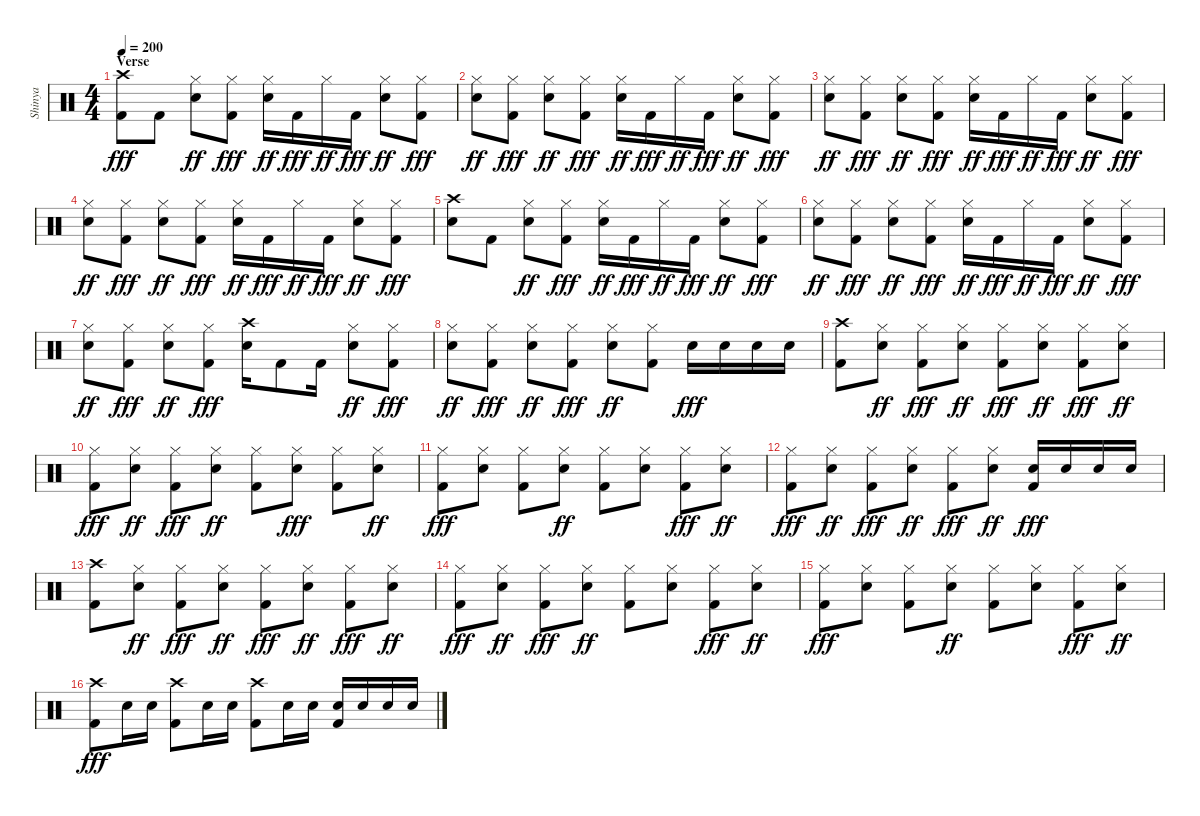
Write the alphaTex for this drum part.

\track ("Shinya" "Shinya") {instrument percussion}
\staff {score}
\articulation defaults
\ts (4 4)
\section ("" "Verse")
\tempo 200
\clef neutral
\ks c
("Kick (hit) 2" "Crash high (hit)").8{dy fff} "Kick (hit) 2".8 ("Snare (hit) 2" "Hi-Hat (closed)").8{dy ff} ("Hi-Hat (closed)" "Kick (hit) 2").8{dy fff} ("Snare (hit) 2" "Hi-Hat (closed)").16{dy ff} "Kick (hit) 2".16{dy fff} "Hi-Hat (closed)".16{dy ff} "Kick (hit) 2".16{dy fff} ("Snare (hit) 2" "Hi-Hat (closed)").8{dy ff} ("Hi-Hat (closed)" "Kick (hit) 2").8{dy fff} |
("Snare (hit) 2" "Hi-Hat (closed)").8{dy ff} ("Hi-Hat (closed)" "Kick (hit) 2").8{dy fff} ("Snare (hit) 2" "Hi-Hat (closed)").8{dy ff} ("Hi-Hat (closed)" "Kick (hit) 2").8{dy fff} ("Snare (hit) 2" "Hi-Hat (closed)").16{dy ff} "Kick (hit) 2".16{dy fff} "Hi-Hat (closed)".16{dy ff} "Kick (hit) 2".16{dy fff} ("Snare (hit) 2" "Hi-Hat (closed)").8{dy ff} ("Hi-Hat (closed)" "Kick (hit) 2").8{dy fff} |
("Snare (hit) 2" "Hi-Hat (closed)").8{dy ff} ("Hi-Hat (closed)" "Kick (hit) 2").8{dy fff} ("Snare (hit) 2" "Hi-Hat (closed)").8{dy ff} ("Hi-Hat (closed)" "Kick (hit) 2").8{dy fff} ("Snare (hit) 2" "Hi-Hat (closed)").16{dy ff} "Kick (hit) 2".16{dy fff} "Hi-Hat (closed)".16{dy ff} "Kick (hit) 2".16{dy fff} ("Snare (hit) 2" "Hi-Hat (closed)").8{dy ff} ("Hi-Hat (closed)" "Kick (hit) 2").8{dy fff} |
("Snare (hit) 2" "Hi-Hat (closed)").8{dy ff} ("Hi-Hat (closed)" "Kick (hit) 2").8{dy fff} ("Snare (hit) 2" "Hi-Hat (closed)").8{dy ff} ("Hi-Hat (closed)" "Kick (hit) 2").8{dy fff} ("Snare (hit) 2" "Hi-Hat (closed)").16{dy ff} "Kick (hit) 2".16{dy fff} "Hi-Hat (closed)".16{dy ff} "Kick (hit) 2".16{dy fff} ("Snare (hit) 2" "Hi-Hat (closed)").8{dy ff} ("Hi-Hat (closed)" "Kick (hit) 2").8{dy fff} |
("Snare (hit) 2" "Crash high (hit)").8 "Kick (hit) 2".8 ("Snare (hit) 2" "Hi-Hat (closed)").8{dy ff} ("Hi-Hat (closed)" "Kick (hit) 2").8{dy fff} ("Snare (hit) 2" "Hi-Hat (closed)").16{dy ff} "Kick (hit) 2".16{dy fff} "Hi-Hat (closed)".16{dy ff} "Kick (hit) 2".16{dy fff} ("Snare (hit) 2" "Hi-Hat (closed)").8{dy ff} ("Hi-Hat (closed)" "Kick (hit) 2").8{dy fff} |
("Snare (hit) 2" "Hi-Hat (closed)").8{dy ff} ("Hi-Hat (closed)" "Kick (hit) 2").8{dy fff} ("Snare (hit) 2" "Hi-Hat (closed)").8{dy ff} ("Hi-Hat (closed)" "Kick (hit) 2").8{dy fff} ("Snare (hit) 2" "Hi-Hat (closed)").16{dy ff} "Kick (hit) 2".16{dy fff} "Hi-Hat (closed)".16{dy ff} "Kick (hit) 2".16{dy fff} ("Snare (hit) 2" "Hi-Hat (closed)").8{dy ff} ("Hi-Hat (closed)" "Kick (hit) 2").8{dy fff} |
("Snare (hit) 2" "Hi-Hat (closed)").8{dy ff} ("Hi-Hat (closed)" "Kick (hit) 2").8{dy fff} ("Snare (hit) 2" "Hi-Hat (closed)").8{dy ff} ("Hi-Hat (closed)" "Kick (hit) 2").8{dy fff} ("Snare (hit) 2" "Crash high (hit)").16 "Kick (hit) 2".8 "Kick (hit) 2".16 ("Snare (hit) 2" "Hi-Hat (closed)").8{dy ff} ("Hi-Hat (closed)" "Kick (hit) 2").8{dy fff} |
("Snare (hit) 2" "Hi-Hat (closed)").8{dy ff} ("Hi-Hat (closed)" "Kick (hit) 2").8{dy fff} ("Snare (hit) 2" "Hi-Hat (closed)").8{dy ff} ("Hi-Hat (closed)" "Kick (hit) 2").8{dy fff} ("Snare (hit) 2" "Hi-Hat (closed)").8{dy ff} ("Kick (hit) 2" "Hi-Hat (closed)").8 "Snare (hit) 2".16{dy fff} "Snare (hit) 2".16 "Snare (hit) 2".16 "Snare (hit) 2".16 |
("Crash high (hit)" "Kick (hit) 2").8 ("Snare (hit) 2" "Hi-Hat (closed)").8{dy ff} ("Hi-Hat (closed)" "Kick (hit) 2").8{dy fff} ("Snare (hit) 2" "Hi-Hat (closed)").8{dy ff} ("Hi-Hat (closed)" "Kick (hit) 2").8{dy fff} ("Snare (hit) 2" "Hi-Hat (closed)").8{dy ff} ("Hi-Hat (closed)" "Kick (hit) 2").8{dy fff} ("Snare (hit) 2" "Hi-Hat (closed)").8{dy ff} |
("Hi-Hat (closed)" "Kick (hit) 2").8{dy fff} ("Snare (hit) 2" "Hi-Hat (closed)").8{dy ff} ("Hi-Hat (closed)" "Kick (hit) 2").8{dy fff} ("Snare (hit) 2" "Hi-Hat (closed)").8{dy ff} ("Kick (hit) 2" "Hi-Hat (closed)").8 ("Hi-Hat (closed)" "Snare (hit) 2").8{dy fff} ("Hi-Hat (closed)" "Kick (hit) 2").8 ("Snare (hit) 2" "Hi-Hat (closed)").8{dy ff} |
("Hi-Hat (closed)" "Kick (hit) 2").8{dy fff} ("Hi-Hat (closed)" "Snare (hit) 2").8 ("Hi-Hat (closed)" "Kick (hit) 2").8 ("Snare (hit) 2" "Hi-Hat (closed)").8{dy ff} ("Kick (hit) 2" "Hi-Hat (closed)").8 ("Snare (hit) 2" "Hi-Hat (closed)").8 ("Hi-Hat (closed)" "Kick (hit) 2").8{dy fff} ("Snare (hit) 2" "Hi-Hat (closed)").8{dy ff} |
("Hi-Hat (closed)" "Kick (hit) 2").8{dy fff} ("Snare (hit) 2" "Hi-Hat (closed)").8{dy ff} ("Hi-Hat (closed)" "Kick (hit) 2").8{dy fff} ("Snare (hit) 2" "Hi-Hat (closed)").8{dy ff} ("Hi-Hat (closed)" "Kick (hit) 2").8{dy fff} ("Snare (hit) 2" "Hi-Hat (closed)").8{dy ff} ("Snare (hit) 2" "Kick (hit) 2").16{dy fff} "Snare (hit) 2".16 "Snare (hit) 2".16 "Snare (hit) 2".16 |
("Crash high (hit)" "Kick (hit) 2").8 ("Snare (hit) 2" "Hi-Hat (closed)").8{dy ff} ("Hi-Hat (closed)" "Kick (hit) 2").8{dy fff} ("Snare (hit) 2" "Hi-Hat (closed)").8{dy ff} ("Hi-Hat (closed)" "Kick (hit) 2").8{dy fff} ("Snare (hit) 2" "Hi-Hat (closed)").8{dy ff} ("Hi-Hat (closed)" "Kick (hit) 2").8{dy fff} ("Snare (hit) 2" "Hi-Hat (closed)").8{dy ff} |
("Hi-Hat (closed)" "Kick (hit) 2").8{dy fff} ("Snare (hit) 2" "Hi-Hat (closed)").8{dy ff} ("Hi-Hat (closed)" "Kick (hit) 2").8{dy fff} ("Snare (hit) 2" "Hi-Hat (closed)").8{dy ff} ("Kick (hit) 2" "Hi-Hat (closed)").8 ("Snare (hit) 2" "Hi-Hat (closed)").8 ("Hi-Hat (closed)" "Kick (hit) 2").8{dy fff} ("Snare (hit) 2" "Hi-Hat (closed)").8{dy ff} |
("Hi-Hat (closed)" "Kick (hit) 2").8{dy fff} ("Hi-Hat (closed)" "Snare (hit) 2").8 ("Hi-Hat (closed)" "Kick (hit) 2").8 ("Snare (hit) 2" "Hi-Hat (closed)").8{dy ff} ("Kick (hit) 2" "Hi-Hat (closed)").8 ("Snare (hit) 2" "Hi-Hat (closed)").8 ("Hi-Hat (closed)" "Kick (hit) 2").8{dy fff} ("Snare (hit) 2" "Hi-Hat (closed)").8{dy ff} |
("Crash high (hit)" "Kick (hit) 2").8{dy fff} "Snare (hit) 2".16 "Snare (hit) 2".16 ("Kick (hit) 2" "Crash high (hit)").8 "Snare (hit) 2".16 "Snare (hit) 2".16 ("Crash high (hit)" "Kick (hit) 2").8 "Snare (hit) 2".16 "Snare (hit) 2".16 ("Snare (hit) 2" "Kick (hit) 2").16 "Snare (hit) 2".16 "Snare (hit) 2".16 "Snare (hit) 2".16
